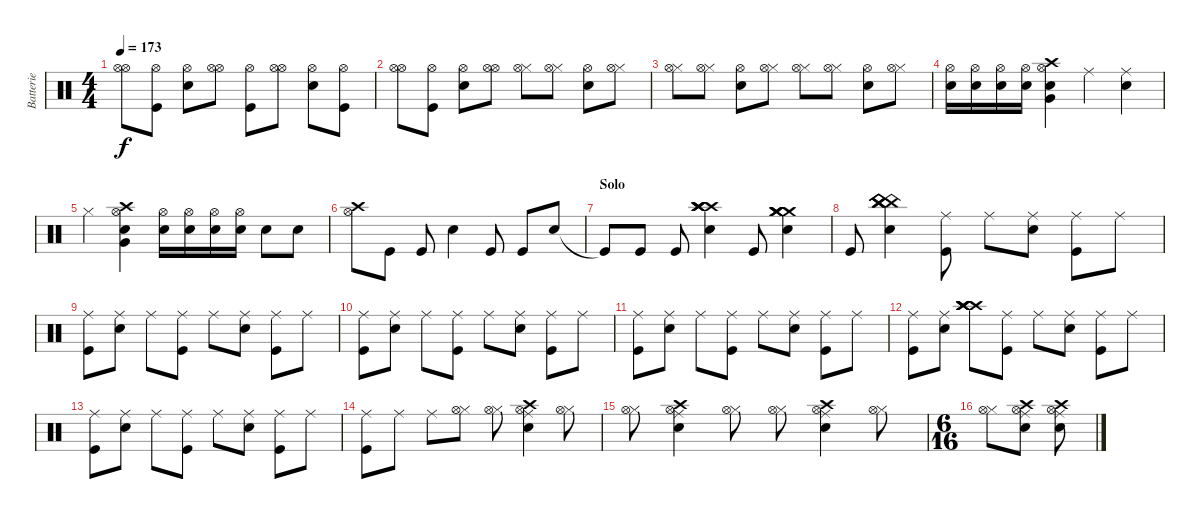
\track ("Batterie" "Batterie") {instrument percussion}
\staff {score}
\articulation defaults
\ts (4 4)
\tempo 173
\clef neutral
\ks c
("Hi-Hat (open)" "Hi-Hat (open)").8{dy f} ("Kick (hit)" "Hi-Hat (open)").8 ("Electric Snare (hit)" "Hi-Hat (open)").8 ("Hi-Hat (open)" "Hi-Hat (open)").8 ("Kick (hit)" "Hi-Hat (open)").8 ("Hi-Hat (open)" "Hi-Hat (open)").8 ("Electric Snare (hit)" "Hi-Hat (open)").8 ("Kick (hit)" "Hi-Hat (open)").8 |
("Hi-Hat (open)" "Hi-Hat (open)").8 ("Kick (hit)" "Hi-Hat (open)").8 ("Electric Snare (hit)" "Hi-Hat (open)").8 ("Hi-Hat (open)" "Hi-Hat (open)").8 ("Hi-Hat (closed)" "Hi-Hat (open)").8 ("Hi-Hat (closed)" "Hi-Hat (open)").8 ("Electric Snare (hit)" "Hi-Hat (open)").8 ("Hi-Hat (closed)" "Hi-Hat (open)").8 |
("Hi-Hat (closed)" "Hi-Hat (open)").8 ("Hi-Hat (closed)" "Hi-Hat (open)").8 ("Electric Snare (hit)" "Hi-Hat (open)").8 ("Hi-Hat (closed)" "Hi-Hat (open)").8 ("Hi-Hat (closed)" "Hi-Hat (open)").8 ("Hi-Hat (closed)" "Hi-Hat (open)").8 ("Electric Snare (hit)" "Hi-Hat (open)").8 ("Hi-Hat (closed)" "Hi-Hat (open)").8 |
("Electric Snare (hit)" "Hi-Hat (open)").16 ("Electric Snare (hit)" "Hi-Hat (open)").16 ("Electric Snare (hit)" "Hi-Hat (open)").16 ("Electric Snare (hit)" "Hi-Hat (open)").16 ("Hi-Hat (open)" "Electric Snare (hit)" "Very Low Tom (hit)" "Crash high (hit)").4 "Ride (middle)".4 ("Ride (middle)" "Electric Snare (hit)").4 |
"Hi-Hat (closed)".4 ("Electric Snare (hit)" "Very Low Tom (hit)" "Hi-Hat (open)" "Crash high (hit)").4 ("Electric Snare (hit)" "Hi-Hat (open)").16 ("Electric Snare (hit)" "Hi-Hat (open)").16 ("Electric Snare (hit)" "Hi-Hat (open)").16 ("Electric Snare (hit)" "Hi-Hat (open)").16 "Electric Snare (hit)".8 "Electric Snare (hit)".8 |
("Hi-Hat (open)" "Crash high (hit)").8 "Kick (hit)".8 "Kick (hit)".8 "Electric Snare (hit)".4 "Kick (hit)".8 "Kick (hit)".8 "Electric Snare (hit)".8 |
\section ("" "Solo")
"Kick (hit)"{t}.8 "Kick (hit)".8 "Kick (hit)".8 ("Electric Snare (hit)" "Crash high (hit)" "Crash high (hit)" "Crash high (hit)" "Crash high (hit)" "Crash high (hit)").4 "Kick (hit)".8 ("Electric Snare (hit)" "Crash medium (hit)" "Crash medium (hit)" "Crash medium (hit)" "Crash medium (hit)" "Crash medium (hit)").4 |
"Kick (hit)".8 ("Electric Snare (hit)" "China (hit)" "China (hit)" "China (hit)" "China (hit)" "China (hit)").4 ("Ride (middle)" "Kick (hit)").8 "Ride (middle)".8 ("Ride (middle)" "Electric Snare (hit)").8 ("Ride (middle)" "Kick (hit)").8 "Ride (middle)".8 |
("Ride (middle)" "Kick (hit)").8 ("Ride (middle)" "Electric Snare (hit)").8 "Ride (middle)".8 ("Ride (middle)" "Kick (hit)").8 "Ride (middle)".8 ("Ride (middle)" "Electric Snare (hit)").8 ("Ride (middle)" "Kick (hit)").8 "Ride (middle)".8 |
("Ride (middle)" "Kick (hit)").8 ("Ride (middle)" "Electric Snare (hit)").8 "Ride (middle)".8 ("Ride (middle)" "Kick (hit)").8 "Ride (middle)".8 ("Ride (middle)" "Electric Snare (hit)").8 ("Ride (middle)" "Kick (hit)").8 "Ride (middle)".8 |
("Ride (middle)" "Kick (hit)").8 ("Ride (middle)" "Electric Snare (hit)").8 "Ride (middle)".8 ("Ride (middle)" "Kick (hit)").8 "Ride (middle)".8 ("Ride (middle)" "Electric Snare (hit)").8 ("Ride (middle)" "Kick (hit)").8 "Ride (middle)".8 |
("Ride (middle)" "Kick (hit)").8 ("Ride (middle)" "Electric Snare (hit)").8 ("Crash high (hit)" "Crash high (hit)" "Crash high (hit)" "Crash high (hit)" "Crash high (hit)").8 ("Ride (middle)" "Kick (hit)").8 "Ride (middle)".8 ("Ride (middle)" "Electric Snare (hit)").8 ("Ride (middle)" "Kick (hit)").8 "Ride (middle)".8 |
("Ride (middle)" "Kick (hit)").8 ("Ride (middle)" "Electric Snare (hit)").8 "Ride (middle)".8 ("Ride (middle)" "Kick (hit)").8 "Ride (middle)".8 ("Ride (middle)" "Electric Snare (hit)").8 ("Ride (middle)" "Kick (hit)").8 "Ride (middle)".8 |
("Ride (middle)" "Kick (hit)").8 "Ride (middle)".8 "Ride (middle)".8 ("Hi-Hat (closed)" "Hi-Hat (open)").8 ("Hi-Hat (closed)" "Hi-Hat (open)").8 ("Electric Snare (hit)" "Crash high (hit)" "Hi-Hat (open)" "Ride (middle)").4 ("Hi-Hat (closed)" "Hi-Hat (open)").8 |
("Hi-Hat (closed)" "Hi-Hat (open)").8 ("Electric Snare (hit)" "Crash high (hit)" "Hi-Hat (open)" "Ride (middle)").4 ("Hi-Hat (closed)" "Hi-Hat (open)").8 ("Hi-Hat (closed)" "Hi-Hat (open)").8 ("Electric Snare (hit)" "Crash high (hit)" "Hi-Hat (open)" "Ride (middle)").4 ("Hi-Hat (closed)" "Hi-Hat (open)").8 |
\ts (6 16)
("Hi-Hat (closed)" "Hi-Hat (open)").8 ("Electric Snare (hit)" "Crash high (hit)" "Hi-Hat (open)" "Ride (middle)").8 ("Electric Snare (hit)" "Crash high (hit)" "Hi-Hat (open)" "Ride (middle)").8
